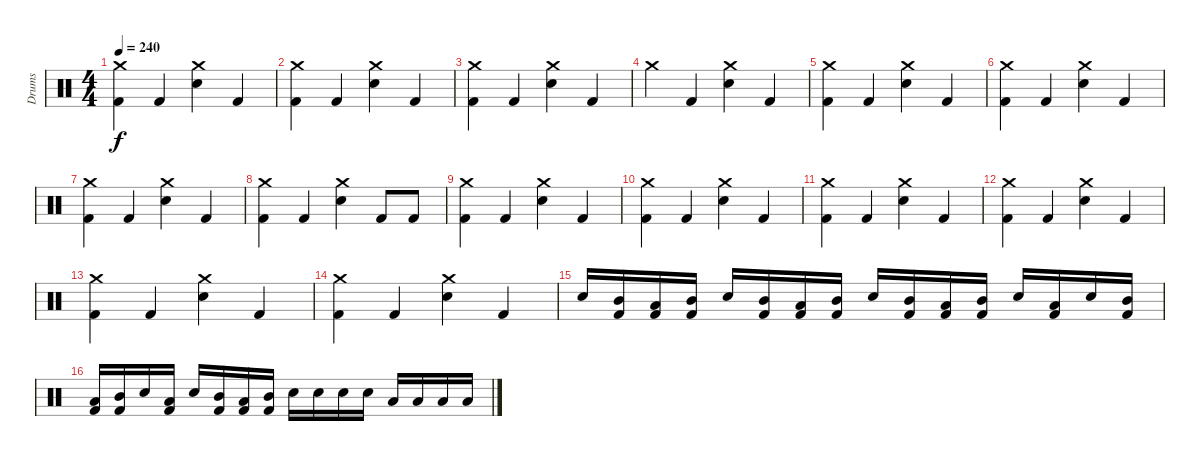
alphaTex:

\track ("Drums" "Drums") {instrument percussion}
\staff {score}
\articulation defaults
\ts (4 4)
\tempo 240
\clef neutral
\ks c
("Kick (hit) 2" "Crash medium (hit)").4{dy f} "Kick (hit) 2".4 ("Electric Snare (hit)" "Crash medium (hit)").4 "Kick (hit) 2".4 |
("Kick (hit) 2" "Crash medium (hit)").4 "Kick (hit) 2".4 ("Electric Snare (hit)" "Crash medium (hit)").4 "Kick (hit) 2".4 |
("Kick (hit) 2" "Crash medium (hit)").4 "Kick (hit) 2".4 ("Electric Snare (hit)" "Crash medium (hit)").4 "Kick (hit) 2".4 |
"Crash medium (hit)".4 "Kick (hit) 2".4 ("Electric Snare (hit)" "Crash medium (hit)").4 "Kick (hit) 2".4 |
("Kick (hit) 2" "Crash medium (hit)").4 "Kick (hit) 2".4 ("Electric Snare (hit)" "Crash medium (hit)").4 "Kick (hit) 2".4 |
("Kick (hit) 2" "Crash medium (hit)").4 "Kick (hit) 2".4 ("Electric Snare (hit)" "Crash medium (hit)").4 "Kick (hit) 2".4 |
("Kick (hit) 2" "Crash medium (hit)").4 "Kick (hit) 2".4 ("Electric Snare (hit)" "Crash medium (hit)").4 "Kick (hit) 2".4 |
("Kick (hit) 2" "Crash medium (hit)").4 "Kick (hit) 2".4 ("Electric Snare (hit)" "Crash medium (hit)").4 "Kick (hit) 2".8 "Kick (hit) 2".8 |
("Kick (hit) 2" "Crash medium (hit)").4 "Kick (hit) 2".4 ("Electric Snare (hit)" "Crash medium (hit)").4 "Kick (hit) 2".4 |
("Kick (hit) 2" "Crash medium (hit)").4 "Kick (hit) 2".4 ("Electric Snare (hit)" "Crash medium (hit)").4 "Kick (hit) 2".4 |
("Kick (hit) 2" "Crash medium (hit)").4 "Kick (hit) 2".4 ("Electric Snare (hit)" "Crash medium (hit)").4 "Kick (hit) 2".4 |
("Kick (hit) 2" "Crash medium (hit)").4 "Kick (hit) 2".4 ("Electric Snare (hit)" "Crash medium (hit)").4 "Kick (hit) 2".4 |
("Kick (hit) 2" "Crash medium (hit)").4 "Kick (hit) 2".4 ("Electric Snare (hit)" "Crash medium (hit)").4 "Kick (hit) 2".4 |
("Kick (hit) 2" "Crash medium (hit)").4 "Kick (hit) 2".4 ("Electric Snare (hit)" "Crash medium (hit)").4 "Kick (hit) 2".4 |
"Electric Snare (hit)".16 ("Kick (hit) 2" "Mid Tom (hit)").16 ("Kick (hit) 2" "Low Tom (hit)").16 ("Kick (hit) 2" "Mid Tom (hit)").16 "Electric Snare (hit)".16 ("Kick (hit) 2" "Mid Tom (hit)").16 ("Kick (hit) 2" "Low Tom (hit)").16 ("Kick (hit) 2" "Mid Tom (hit)").16 "Electric Snare (hit)".16 ("Kick (hit) 2" "Mid Tom (hit)").16 ("Kick (hit) 2" "Low Tom (hit)").16 ("Kick (hit) 2" "Mid Tom (hit)").16 "Electric Snare (hit)".16 ("Kick (hit) 2" "Low Tom (hit)").16 "Electric Snare (hit)".16 ("Kick (hit) 2" "Mid Tom (hit)").16 |
("Kick (hit) 2" "Low Tom (hit)").16 ("Kick (hit) 2" "Mid Tom (hit)").16 "Electric Snare (hit)".16 ("Kick (hit) 2" "Low Tom (hit)").16 "Electric Snare (hit)".16 ("Kick (hit) 2" "Mid Tom (hit)").16 ("Kick (hit) 2" "Low Tom (hit)").16 ("Kick (hit) 2" "Mid Tom (hit)").16 "Electric Snare (hit)".16 "Electric Snare (hit)".16 "Electric Snare (hit)".16 "Electric Snare (hit)".16 "Low Tom (hit)".16 "Low Tom (hit)".16 "Low Tom (hit)".16 "Low Tom (hit)".16
